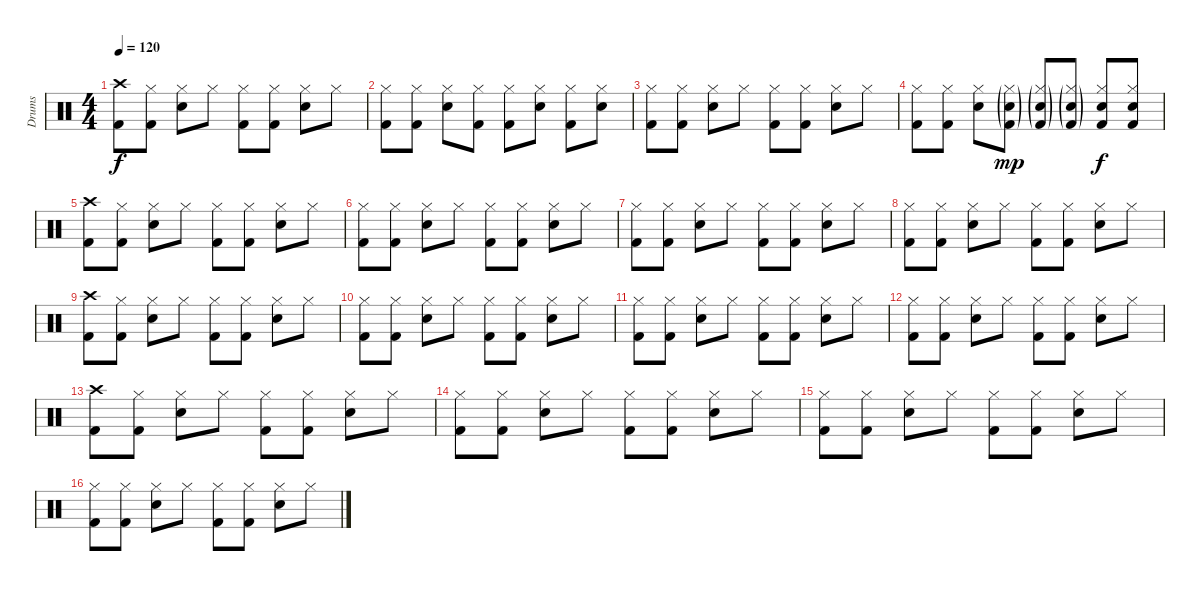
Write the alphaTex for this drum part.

\track ("Drums" "Drums") {instrument percussion}
\staff {score}
\articulation defaults
\ts (4 4)
\tempo 120
\clef neutral
\ks c
("Crash high (hit)" "Kick (hit) 2").8{dy f} ("Hi-Hat (closed)" "Kick (hit) 2").8 ("Hi-Hat (closed)" "Electric Snare (hit)").8 "Hi-Hat (closed)".8 ("Hi-Hat (closed)" "Kick (hit) 2").8 ("Hi-Hat (closed)" "Kick (hit) 2").8 ("Hi-Hat (closed)" "Electric Snare (hit)").8 "Hi-Hat (closed)".8 |
("Hi-Hat (closed)" "Kick (hit) 2").8 ("Hi-Hat (closed)" "Kick (hit) 2").8 ("Hi-Hat (closed)" "Electric Snare (hit)").8 ("Hi-Hat (closed)" "Kick (hit) 2").8 ("Hi-Hat (closed)" "Kick (hit) 2").8 ("Hi-Hat (closed)" "Electric Snare (hit)").8 ("Hi-Hat (closed)" "Kick (hit) 2").8 ("Hi-Hat (closed)" "Electric Snare (hit)").8 |
("Hi-Hat (closed)" "Kick (hit) 2").8 ("Hi-Hat (closed)" "Kick (hit) 2").8 ("Hi-Hat (closed)" "Electric Snare (hit)").8 "Hi-Hat (closed)".8 ("Hi-Hat (closed)" "Kick (hit) 2").8 ("Hi-Hat (closed)" "Kick (hit) 2").8 ("Hi-Hat (closed)" "Electric Snare (hit)").8 "Hi-Hat (closed)".8 |
("Hi-Hat (closed)" "Kick (hit) 2").8 ("Hi-Hat (closed)" "Kick (hit) 2").8 ("Hi-Hat (closed)" "Electric Snare (hit)").8 ("Hi-Hat (closed)"{g} "Electric Snare (hit)"{g} "Kick (hit) 2"{g}).8{dy mp} ("Hi-Hat (closed)"{g} "Electric Snare (hit)"{g} "Kick (hit) 2"{g}).8 ("Hi-Hat (closed)"{g} "Electric Snare (hit)"{g} "Kick (hit) 2"{g}).8 ("Hi-Hat (closed)" "Electric Snare (hit)" "Kick (hit) 2").8{dy f} ("Hi-Hat (closed)" "Electric Snare (hit)" "Kick (hit) 2").8 |
("Crash high (hit)" "Kick (hit) 2").8 ("Hi-Hat (closed)" "Kick (hit) 2").8 ("Hi-Hat (closed)" "Electric Snare (hit)").8 "Hi-Hat (closed)".8 ("Hi-Hat (closed)" "Kick (hit) 2").8 ("Hi-Hat (closed)" "Kick (hit) 2").8 ("Hi-Hat (closed)" "Electric Snare (hit)").8 "Hi-Hat (closed)".8 |
("Hi-Hat (closed)" "Kick (hit) 2").8 ("Hi-Hat (closed)" "Kick (hit) 2").8 ("Hi-Hat (closed)" "Electric Snare (hit)").8 "Hi-Hat (closed)".8 ("Hi-Hat (closed)" "Kick (hit) 2").8 ("Hi-Hat (closed)" "Kick (hit) 2").8 ("Hi-Hat (closed)" "Electric Snare (hit)").8 "Hi-Hat (closed)".8 |
("Hi-Hat (closed)" "Kick (hit) 2").8 ("Hi-Hat (closed)" "Kick (hit) 2").8 ("Hi-Hat (closed)" "Electric Snare (hit)").8 "Hi-Hat (closed)".8 ("Hi-Hat (closed)" "Kick (hit) 2").8 ("Hi-Hat (closed)" "Kick (hit) 2").8 ("Hi-Hat (closed)" "Electric Snare (hit)").8 "Hi-Hat (closed)".8 |
("Hi-Hat (closed)" "Kick (hit) 2").8 ("Hi-Hat (closed)" "Kick (hit) 2").8 ("Hi-Hat (closed)" "Electric Snare (hit)").8 "Hi-Hat (closed)".8 ("Hi-Hat (closed)" "Kick (hit) 2").8 ("Hi-Hat (closed)" "Kick (hit) 2").8 ("Hi-Hat (closed)" "Electric Snare (hit)").8 "Hi-Hat (closed)".8 |
("Crash high (hit)" "Kick (hit) 2").8 ("Hi-Hat (closed)" "Kick (hit) 2").8 ("Hi-Hat (closed)" "Electric Snare (hit)").8 "Hi-Hat (closed)".8 ("Hi-Hat (closed)" "Kick (hit) 2").8 ("Hi-Hat (closed)" "Kick (hit) 2").8 ("Hi-Hat (closed)" "Electric Snare (hit)").8 "Hi-Hat (closed)".8 |
("Hi-Hat (closed)" "Kick (hit) 2").8 ("Hi-Hat (closed)" "Kick (hit) 2").8 ("Hi-Hat (closed)" "Electric Snare (hit)").8 "Hi-Hat (closed)".8 ("Hi-Hat (closed)" "Kick (hit) 2").8 ("Hi-Hat (closed)" "Kick (hit) 2").8 ("Hi-Hat (closed)" "Electric Snare (hit)").8 "Hi-Hat (closed)".8 |
("Hi-Hat (closed)" "Kick (hit) 2").8 ("Hi-Hat (closed)" "Kick (hit) 2").8 ("Hi-Hat (closed)" "Electric Snare (hit)").8 "Hi-Hat (closed)".8 ("Hi-Hat (closed)" "Kick (hit) 2").8 ("Hi-Hat (closed)" "Kick (hit) 2").8 ("Hi-Hat (closed)" "Electric Snare (hit)").8 "Hi-Hat (closed)".8 |
("Hi-Hat (closed)" "Kick (hit) 2").8 ("Hi-Hat (closed)" "Kick (hit) 2").8 ("Hi-Hat (closed)" "Electric Snare (hit)").8 "Hi-Hat (closed)".8 ("Hi-Hat (closed)" "Kick (hit) 2").8 ("Hi-Hat (closed)" "Kick (hit) 2").8 ("Hi-Hat (closed)" "Electric Snare (hit)").8 "Hi-Hat (closed)".8 |
("Crash high (hit)" "Kick (hit) 2").8 ("Hi-Hat (closed)" "Kick (hit) 2").8 ("Hi-Hat (closed)" "Electric Snare (hit)").8 "Hi-Hat (closed)".8 ("Hi-Hat (closed)" "Kick (hit) 2").8 ("Hi-Hat (closed)" "Kick (hit) 2").8 ("Hi-Hat (closed)" "Electric Snare (hit)").8 "Hi-Hat (closed)".8 |
("Hi-Hat (closed)" "Kick (hit) 2").8 ("Hi-Hat (closed)" "Kick (hit) 2").8 ("Hi-Hat (closed)" "Electric Snare (hit)").8 "Hi-Hat (closed)".8 ("Hi-Hat (closed)" "Kick (hit) 2").8 ("Hi-Hat (closed)" "Kick (hit) 2").8 ("Hi-Hat (closed)" "Electric Snare (hit)").8 "Hi-Hat (closed)".8 |
("Hi-Hat (closed)" "Kick (hit) 2").8 ("Hi-Hat (closed)" "Kick (hit) 2").8 ("Hi-Hat (closed)" "Electric Snare (hit)").8 "Hi-Hat (closed)".8 ("Hi-Hat (closed)" "Kick (hit) 2").8 ("Hi-Hat (closed)" "Kick (hit) 2").8 ("Hi-Hat (closed)" "Electric Snare (hit)").8 "Hi-Hat (closed)".8 |
("Hi-Hat (closed)" "Kick (hit) 2").8 ("Hi-Hat (closed)" "Kick (hit) 2").8 ("Hi-Hat (closed)" "Electric Snare (hit)").8 "Hi-Hat (closed)".8 ("Hi-Hat (closed)" "Kick (hit) 2").8 ("Hi-Hat (closed)" "Kick (hit) 2").8 ("Hi-Hat (closed)" "Electric Snare (hit)").8 "Hi-Hat (closed)".8
